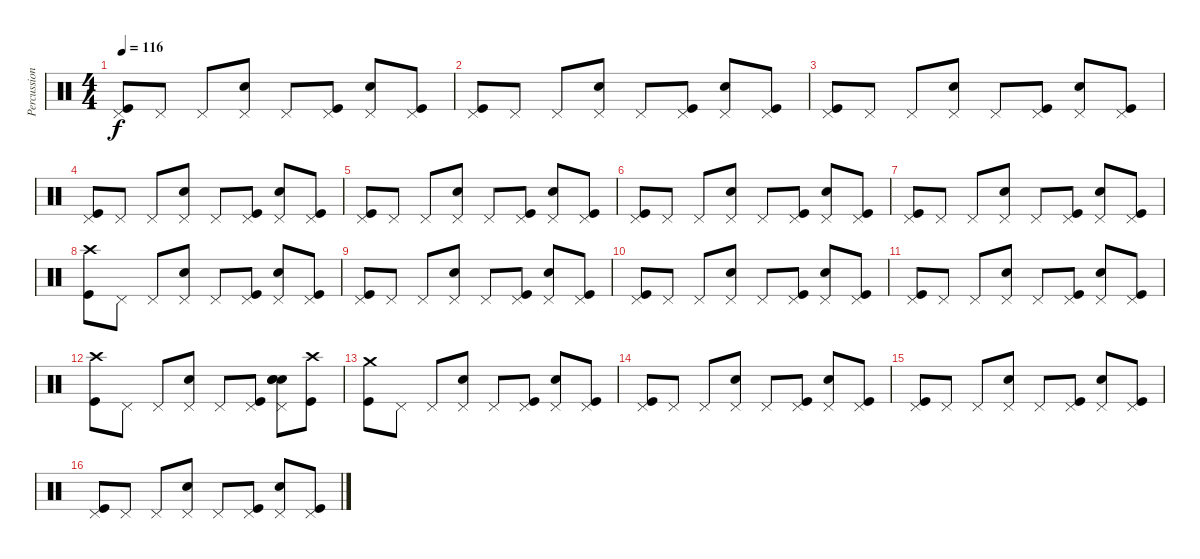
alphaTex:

\track ("Percussions" "Percussion") {instrument percussion}
\staff {score}
\articulation defaults
\ts (4 4)
\tempo 116
\clef neutral
\ks c
("Pedal Hi-Hat (hit)" "Kick (hit)").8{dy f} "Pedal Hi-Hat (hit)".8 "Pedal Hi-Hat (hit)".8 ("Pedal Hi-Hat (hit)" "Snare (hit) 2").8 "Pedal Hi-Hat (hit)".8 ("Pedal Hi-Hat (hit)" "Kick (hit)").8 ("Pedal Hi-Hat (hit)" "Snare (hit) 2").8 ("Pedal Hi-Hat (hit)" "Kick (hit)").8 |
("Pedal Hi-Hat (hit)" "Kick (hit)").8 "Pedal Hi-Hat (hit)".8 "Pedal Hi-Hat (hit)".8 ("Pedal Hi-Hat (hit)" "Snare (hit) 2").8 "Pedal Hi-Hat (hit)".8 ("Pedal Hi-Hat (hit)" "Kick (hit)").8 ("Pedal Hi-Hat (hit)" "Snare (hit) 2").8 ("Pedal Hi-Hat (hit)" "Kick (hit)").8 |
("Pedal Hi-Hat (hit)" "Kick (hit)").8 "Pedal Hi-Hat (hit)".8 "Pedal Hi-Hat (hit)".8 ("Pedal Hi-Hat (hit)" "Snare (hit) 2").8 "Pedal Hi-Hat (hit)".8 ("Pedal Hi-Hat (hit)" "Kick (hit)").8 ("Pedal Hi-Hat (hit)" "Snare (hit) 2").8 ("Pedal Hi-Hat (hit)" "Kick (hit)").8 |
("Pedal Hi-Hat (hit)" "Kick (hit)").8 "Pedal Hi-Hat (hit)".8 "Pedal Hi-Hat (hit)".8 ("Pedal Hi-Hat (hit)" "Snare (hit) 2").8 "Pedal Hi-Hat (hit)".8 ("Pedal Hi-Hat (hit)" "Kick (hit)").8 ("Pedal Hi-Hat (hit)" "Snare (hit) 2").8 ("Pedal Hi-Hat (hit)" "Kick (hit)").8 |
("Pedal Hi-Hat (hit)" "Kick (hit)").8 "Pedal Hi-Hat (hit)".8 "Pedal Hi-Hat (hit)".8 ("Pedal Hi-Hat (hit)" "Snare (hit) 2").8 "Pedal Hi-Hat (hit)".8 ("Pedal Hi-Hat (hit)" "Kick (hit)").8 ("Pedal Hi-Hat (hit)" "Snare (hit) 2").8 ("Pedal Hi-Hat (hit)" "Kick (hit)").8 |
("Pedal Hi-Hat (hit)" "Kick (hit)").8 "Pedal Hi-Hat (hit)".8 "Pedal Hi-Hat (hit)".8 ("Pedal Hi-Hat (hit)" "Snare (hit) 2").8 "Pedal Hi-Hat (hit)".8 ("Pedal Hi-Hat (hit)" "Kick (hit)").8 ("Pedal Hi-Hat (hit)" "Snare (hit) 2").8 ("Pedal Hi-Hat (hit)" "Kick (hit)").8 |
("Pedal Hi-Hat (hit)" "Kick (hit)").8 "Pedal Hi-Hat (hit)".8 "Pedal Hi-Hat (hit)".8 ("Pedal Hi-Hat (hit)" "Snare (hit) 2").8 "Pedal Hi-Hat (hit)".8 ("Pedal Hi-Hat (hit)" "Kick (hit)").8 ("Pedal Hi-Hat (hit)" "Snare (hit) 2").8 ("Pedal Hi-Hat (hit)" "Kick (hit)").8 |
("Crash high (hit)" "Kick (hit)").8 "Pedal Hi-Hat (hit)".8 "Pedal Hi-Hat (hit)".8 ("Pedal Hi-Hat (hit)" "Snare (hit) 2").8 "Pedal Hi-Hat (hit)".8 ("Pedal Hi-Hat (hit)" "Kick (hit)").8 ("Pedal Hi-Hat (hit)" "Snare (hit) 2").8 ("Pedal Hi-Hat (hit)" "Kick (hit)").8 |
("Pedal Hi-Hat (hit)" "Kick (hit)").8 "Pedal Hi-Hat (hit)".8 "Pedal Hi-Hat (hit)".8 ("Pedal Hi-Hat (hit)" "Snare (hit) 2").8 "Pedal Hi-Hat (hit)".8 ("Pedal Hi-Hat (hit)" "Kick (hit)").8 ("Pedal Hi-Hat (hit)" "Snare (hit) 2").8 ("Pedal Hi-Hat (hit)" "Kick (hit)").8 |
("Pedal Hi-Hat (hit)" "Kick (hit)").8 "Pedal Hi-Hat (hit)".8 "Pedal Hi-Hat (hit)".8 ("Pedal Hi-Hat (hit)" "Snare (hit) 2").8 "Pedal Hi-Hat (hit)".8 ("Pedal Hi-Hat (hit)" "Kick (hit)").8 ("Pedal Hi-Hat (hit)" "Snare (hit) 2").8 ("Pedal Hi-Hat (hit)" "Kick (hit)").8 |
("Pedal Hi-Hat (hit)" "Kick (hit)").8 "Pedal Hi-Hat (hit)".8 "Pedal Hi-Hat (hit)".8 ("Pedal Hi-Hat (hit)" "Snare (hit) 2").8 "Pedal Hi-Hat (hit)".8 ("Pedal Hi-Hat (hit)" "Kick (hit)").8 ("Pedal Hi-Hat (hit)" "Snare (hit) 2").8 ("Pedal Hi-Hat (hit)" "Kick (hit)").8 |
("Crash high (hit)" "Kick (hit)").8 "Pedal Hi-Hat (hit)".8 "Pedal Hi-Hat (hit)".8 ("Pedal Hi-Hat (hit)" "Snare (hit) 2").8 "Pedal Hi-Hat (hit)".8 ("Pedal Hi-Hat (hit)" "Kick (hit)").8 ("Pedal Hi-Hat (hit)" "Snare (hit) 2" "Snare (hit) 2" "Snare (hit) 2").8 ("Crash high (hit)" "Kick (hit)").8 |
("Crash medium (hit)" "Kick (hit)").8 "Pedal Hi-Hat (hit)".8 "Pedal Hi-Hat (hit)".8 ("Pedal Hi-Hat (hit)" "Snare (hit) 2").8 "Pedal Hi-Hat (hit)".8 ("Pedal Hi-Hat (hit)" "Kick (hit)").8 ("Pedal Hi-Hat (hit)" "Snare (hit) 2").8 ("Pedal Hi-Hat (hit)" "Kick (hit)").8 |
("Pedal Hi-Hat (hit)" "Kick (hit)").8 "Pedal Hi-Hat (hit)".8 "Pedal Hi-Hat (hit)".8 ("Pedal Hi-Hat (hit)" "Snare (hit) 2").8 "Pedal Hi-Hat (hit)".8 ("Pedal Hi-Hat (hit)" "Kick (hit)").8 ("Pedal Hi-Hat (hit)" "Snare (hit) 2").8 ("Pedal Hi-Hat (hit)" "Kick (hit)").8 |
("Pedal Hi-Hat (hit)" "Kick (hit)").8 "Pedal Hi-Hat (hit)".8 "Pedal Hi-Hat (hit)".8 ("Pedal Hi-Hat (hit)" "Snare (hit) 2").8 "Pedal Hi-Hat (hit)".8 ("Pedal Hi-Hat (hit)" "Kick (hit)").8 ("Pedal Hi-Hat (hit)" "Snare (hit) 2").8 ("Pedal Hi-Hat (hit)" "Kick (hit)").8 |
("Pedal Hi-Hat (hit)" "Kick (hit)").8 "Pedal Hi-Hat (hit)".8 "Pedal Hi-Hat (hit)".8 ("Pedal Hi-Hat (hit)" "Snare (hit) 2").8 "Pedal Hi-Hat (hit)".8 ("Pedal Hi-Hat (hit)" "Kick (hit)").8 ("Pedal Hi-Hat (hit)" "Snare (hit) 2").8 ("Pedal Hi-Hat (hit)" "Kick (hit)").8
